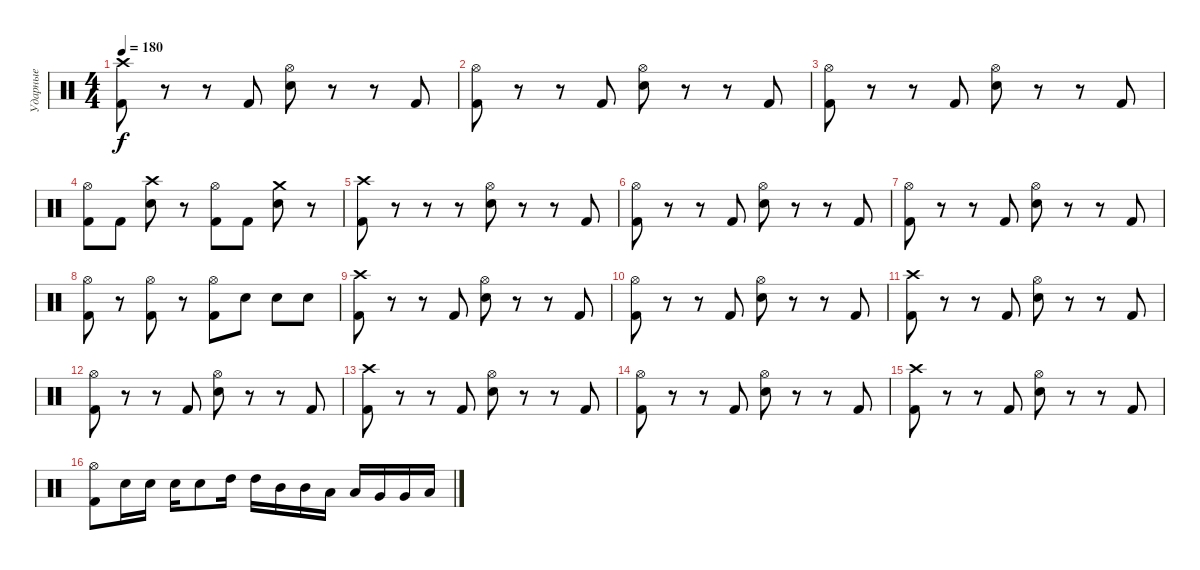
\track ("Ударные" "Ударные") {instrument percussion}
\staff {score}
\articulation defaults
\ts (4 4)
\tempo 180
\clef neutral
\ks c
("Kick (hit) 2" "Crash high (hit)").8{dy f} r.8 r.8 "Kick (hit) 2".8 ("Hi-Hat (open)" "Electric Snare (hit)").8 r.8 r.8 "Kick (hit) 2".8 |
("Kick (hit) 2" "Hi-Hat (open)").8 r.8 r.8 "Kick (hit) 2".8 ("Electric Snare (hit)" "Hi-Hat (open)").8 r.8 r.8 "Kick (hit) 2".8 |
("Kick (hit) 2" "Hi-Hat (open)").8 r.8 r.8 "Kick (hit) 2".8 ("Electric Snare (hit)" "Hi-Hat (open)").8 r.8 r.8 "Kick (hit) 2".8 |
("Kick (hit) 2" "Hi-Hat (open)").8 "Kick (hit) 2".8 ("Electric Snare (hit)" "Crash high (hit)").8 r.8 ("Kick (hit) 2" "Hi-Hat (open)").8 "Kick (hit) 2".8 ("Electric Snare (hit)" "Crash medium (hit)").8 r.8 |
("Kick (hit) 2" "Crash high (hit)").8 r.8 r.8 r.8 ("Hi-Hat (open)" "Electric Snare (hit)").8 r.8 r.8 "Kick (hit) 2".8 |
("Kick (hit) 2" "Hi-Hat (open)").8 r.8 r.8 "Kick (hit) 2".8 ("Electric Snare (hit)" "Hi-Hat (open)").8 r.8 r.8 "Kick (hit) 2".8 |
("Kick (hit) 2" "Hi-Hat (open)").8 r.8 r.8 "Kick (hit) 2".8 ("Electric Snare (hit)" "Hi-Hat (open)").8 r.8 r.8 "Kick (hit) 2".8 |
("Kick (hit) 2" "Hi-Hat (open)").8 r.8 ("Kick (hit) 2" "Hi-Hat (open)").8 r.8 ("Kick (hit) 2" "Hi-Hat (open)").8 "Electric Snare (hit)".8 "Electric Snare (hit)".8 "Electric Snare (hit)".8 |
("Kick (hit) 2" "Crash high (hit)").8 r.8 r.8 "Kick (hit) 2".8 ("Hi-Hat (open)" "Electric Snare (hit)").8 r.8 r.8 "Kick (hit) 2".8 |
("Kick (hit) 2" "Hi-Hat (open)").8 r.8 r.8 "Kick (hit) 2".8 ("Hi-Hat (open)" "Electric Snare (hit)").8 r.8 r.8 "Kick (hit) 2".8 |
("Kick (hit) 2" "Crash high (hit)").8 r.8 r.8 "Kick (hit) 2".8 ("Hi-Hat (open)" "Electric Snare (hit)").8 r.8 r.8 "Kick (hit) 2".8 |
("Kick (hit) 2" "Hi-Hat (open)").8 r.8 r.8 "Kick (hit) 2".8 ("Hi-Hat (open)" "Electric Snare (hit)").8 r.8 r.8 "Kick (hit) 2".8 |
("Kick (hit) 2" "Crash high (hit)").8 r.8 r.8 "Kick (hit) 2".8 ("Hi-Hat (open)" "Electric Snare (hit)").8 r.8 r.8 "Kick (hit) 2".8 |
("Kick (hit) 2" "Hi-Hat (open)").8 r.8 r.8 "Kick (hit) 2".8 ("Hi-Hat (open)" "Electric Snare (hit)").8 r.8 r.8 "Kick (hit) 2".8 |
("Kick (hit) 2" "Crash high (hit)").8 r.8 r.8 "Kick (hit) 2".8 ("Hi-Hat (open)" "Electric Snare (hit)").8 r.8 r.8 "Kick (hit) 2".8 |
("Kick (hit) 2" "Hi-Hat (open)").8 "Electric Snare (hit)".16 "Electric Snare (hit)".16 "Electric Snare (hit)".16 "Electric Snare (hit)".8 "High Tom (hit)".16 "High Tom (hit)".16 "Mid Tom (hit)".16 "Mid Tom (hit)".16 "Low Tom (hit)".16 "Low Tom (hit)".16 "Very Low Tom (hit)".16 "Very Low Tom (hit)".16 "Low Floor Tom (hit)".16
